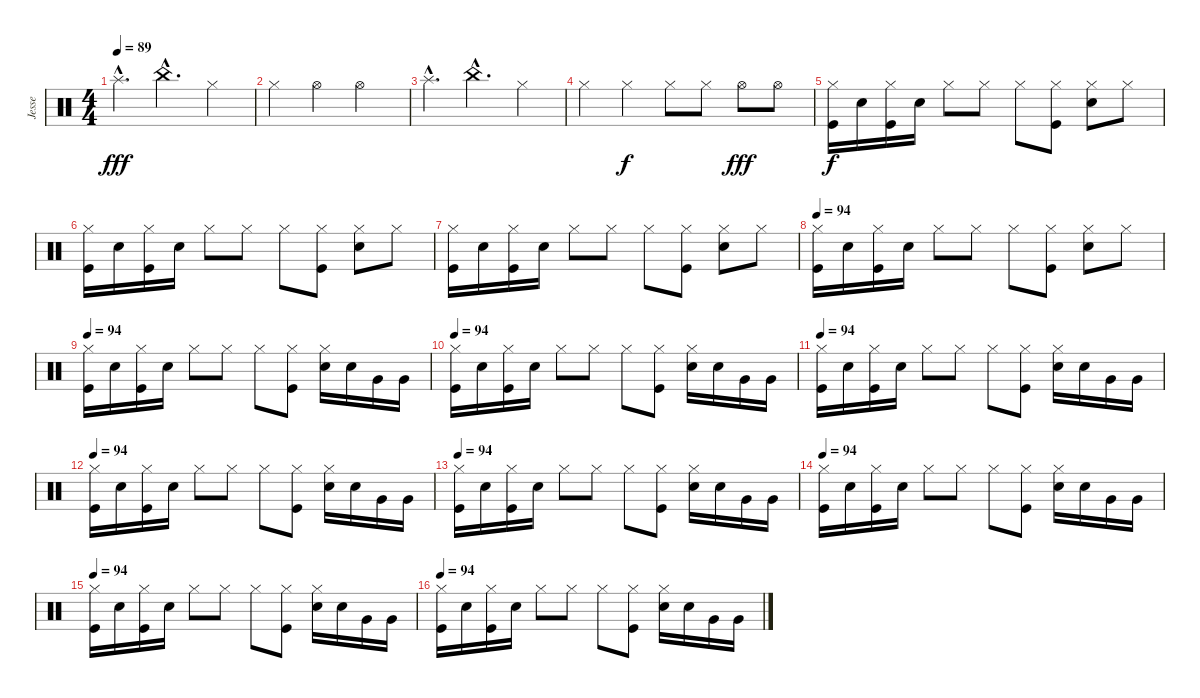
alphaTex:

\track ("Jesse" "Jesse") {instrument percussion}
\staff {score}
\articulation defaults
\ts (4 4)
\tempo 89
\clef neutral
\ks c "Splash (hit)"{hac}.4{d dy fff} "China (hit)"{hac}.4{d} "Hi-Hat (closed)".4
|
"Hi-Hat (closed)".4 "Hi-Hat (open)".4 "Hi-Hat (open)".2 |
"Splash (hit)"{hac}.4{d} "China (hit)"{hac}.4{d} "Hi-Hat (closed)".4 |
"Hi-Hat (closed)".4 "Hi-Hat (closed)".4{dy f} "Hi-Hat (closed)".8 "Hi-Hat (closed)".8 "Hi-Hat (open)".8{dy fff} "Hi-Hat (open)".8 |
("Hi-Hat (closed)" "Kick (hit)").16{dy f} "Snare (hit) 2".16 ("Hi-Hat (closed)" "Kick (hit)").16 "Snare (hit) 2".16 "Hi-Hat (closed)".8 "Hi-Hat (closed)".8 "Hi-Hat (closed)".8 ("Hi-Hat (closed)" "Kick (hit)").8 ("Hi-Hat (closed)" "Snare (hit) 2").8 "Hi-Hat (closed)".8 |
("Hi-Hat (closed)" "Kick (hit)").16 "Snare (hit) 2".16 ("Hi-Hat (closed)" "Kick (hit)").16 "Snare (hit) 2".16 "Hi-Hat (closed)".8 "Hi-Hat (closed)".8 "Hi-Hat (closed)".8 ("Hi-Hat (closed)" "Kick (hit)").8 ("Hi-Hat (closed)" "Snare (hit) 2").8 "Hi-Hat (closed)".8 |
("Hi-Hat (closed)" "Kick (hit)").16 "Snare (hit) 2".16 ("Hi-Hat (closed)" "Kick (hit)").16 "Snare (hit) 2".16 "Hi-Hat (closed)".8 "Hi-Hat (closed)".8 "Hi-Hat (closed)".8 ("Hi-Hat (closed)" "Kick (hit)").8 ("Hi-Hat (closed)" "Snare (hit) 2").8 "Hi-Hat (closed)".8 |
\tempo 94
("Hi-Hat (closed)" "Kick (hit)").16 "Snare (hit) 2".16 ("Hi-Hat (closed)" "Kick (hit)").16 "Snare (hit) 2".16 "Hi-Hat (closed)".8 "Hi-Hat (closed)".8 "Hi-Hat (closed)".8 ("Hi-Hat (closed)" "Kick (hit)").8 ("Hi-Hat (closed)" "Snare (hit) 2").8 "Hi-Hat (closed)".8 |
\tempo 94
("Hi-Hat (closed)" "Kick (hit)").16 "Snare (hit) 2".16 ("Hi-Hat (closed)" "Kick (hit)").16 "Snare (hit) 2".16 "Hi-Hat (closed)".8 "Hi-Hat (closed)".8 "Hi-Hat (closed)".8 ("Hi-Hat (closed)" "Kick (hit)").8 ("Hi-Hat (closed)" "Snare (hit) 2").16 "Snare (hit) 2".16 "Very Low Tom (hit)".16 "Very Low Tom (hit)".16 |
\tempo 94
("Hi-Hat (closed)" "Kick (hit)").16 "Snare (hit) 2".16 ("Hi-Hat (closed)" "Kick (hit)").16 "Snare (hit) 2".16 "Hi-Hat (closed)".8 "Hi-Hat (closed)".8 "Hi-Hat (closed)".8 ("Hi-Hat (closed)" "Kick (hit)").8 ("Hi-Hat (closed)" "Snare (hit) 2").16 "Snare (hit) 2".16 "Very Low Tom (hit)".16 "Very Low Tom (hit)".16 |
\tempo 94
("Hi-Hat (closed)" "Kick (hit)").16 "Snare (hit) 2".16 ("Hi-Hat (closed)" "Kick (hit)").16 "Snare (hit) 2".16 "Hi-Hat (closed)".8 "Hi-Hat (closed)".8 "Hi-Hat (closed)".8 ("Hi-Hat (closed)" "Kick (hit)").8 ("Hi-Hat (closed)" "Snare (hit) 2").16 "Snare (hit) 2".16 "Very Low Tom (hit)".16 "Very Low Tom (hit)".16 |
\tempo 94
("Hi-Hat (closed)" "Kick (hit)").16 "Snare (hit) 2".16 ("Hi-Hat (closed)" "Kick (hit)").16 "Snare (hit) 2".16 "Hi-Hat (closed)".8 "Hi-Hat (closed)".8 "Hi-Hat (closed)".8 ("Hi-Hat (closed)" "Kick (hit)").8 ("Hi-Hat (closed)" "Snare (hit) 2").16 "Snare (hit) 2".16 "Very Low Tom (hit)".16 "Very Low Tom (hit)".16 |
\tempo 94
("Hi-Hat (closed)" "Kick (hit)").16 "Snare (hit) 2".16 ("Hi-Hat (closed)" "Kick (hit)").16 "Snare (hit) 2".16 "Hi-Hat (closed)".8 "Hi-Hat (closed)".8 "Hi-Hat (closed)".8 ("Hi-Hat (closed)" "Kick (hit)").8 ("Hi-Hat (closed)" "Snare (hit) 2").16 "Snare (hit) 2".16 "Very Low Tom (hit)".16 "Very Low Tom (hit)".16 |
\tempo 94
("Hi-Hat (closed)" "Kick (hit)").16 "Snare (hit) 2".16 ("Hi-Hat (closed)" "Kick (hit)").16 "Snare (hit) 2".16 "Hi-Hat (closed)".8 "Hi-Hat (closed)".8 "Hi-Hat (closed)".8 ("Hi-Hat (closed)" "Kick (hit)").8 ("Hi-Hat (closed)" "Snare (hit) 2").16 "Snare (hit) 2".16 "Very Low Tom (hit)".16 "Very Low Tom (hit)".16 |
\tempo 94
("Hi-Hat (closed)" "Kick (hit)").16 "Snare (hit) 2".16 ("Hi-Hat (closed)" "Kick (hit)").16 "Snare (hit) 2".16 "Hi-Hat (closed)".8 "Hi-Hat (closed)".8 "Hi-Hat (closed)".8 ("Hi-Hat (closed)" "Kick (hit)").8 ("Hi-Hat (closed)" "Snare (hit) 2").16 "Snare (hit) 2".16 "Very Low Tom (hit)".16 "Very Low Tom (hit)".16 |
\tempo 94
("Hi-Hat (closed)" "Kick (hit)").16 "Snare (hit) 2".16 ("Hi-Hat (closed)" "Kick (hit)").16 "Snare (hit) 2".16 "Hi-Hat (closed)".8 "Hi-Hat (closed)".8 "Hi-Hat (closed)".8 ("Hi-Hat (closed)" "Kick (hit)").8 ("Hi-Hat (closed)" "Snare (hit) 2").16 "Snare (hit) 2".16 "Very Low Tom (hit)".16 "Very Low Tom (hit)".16
